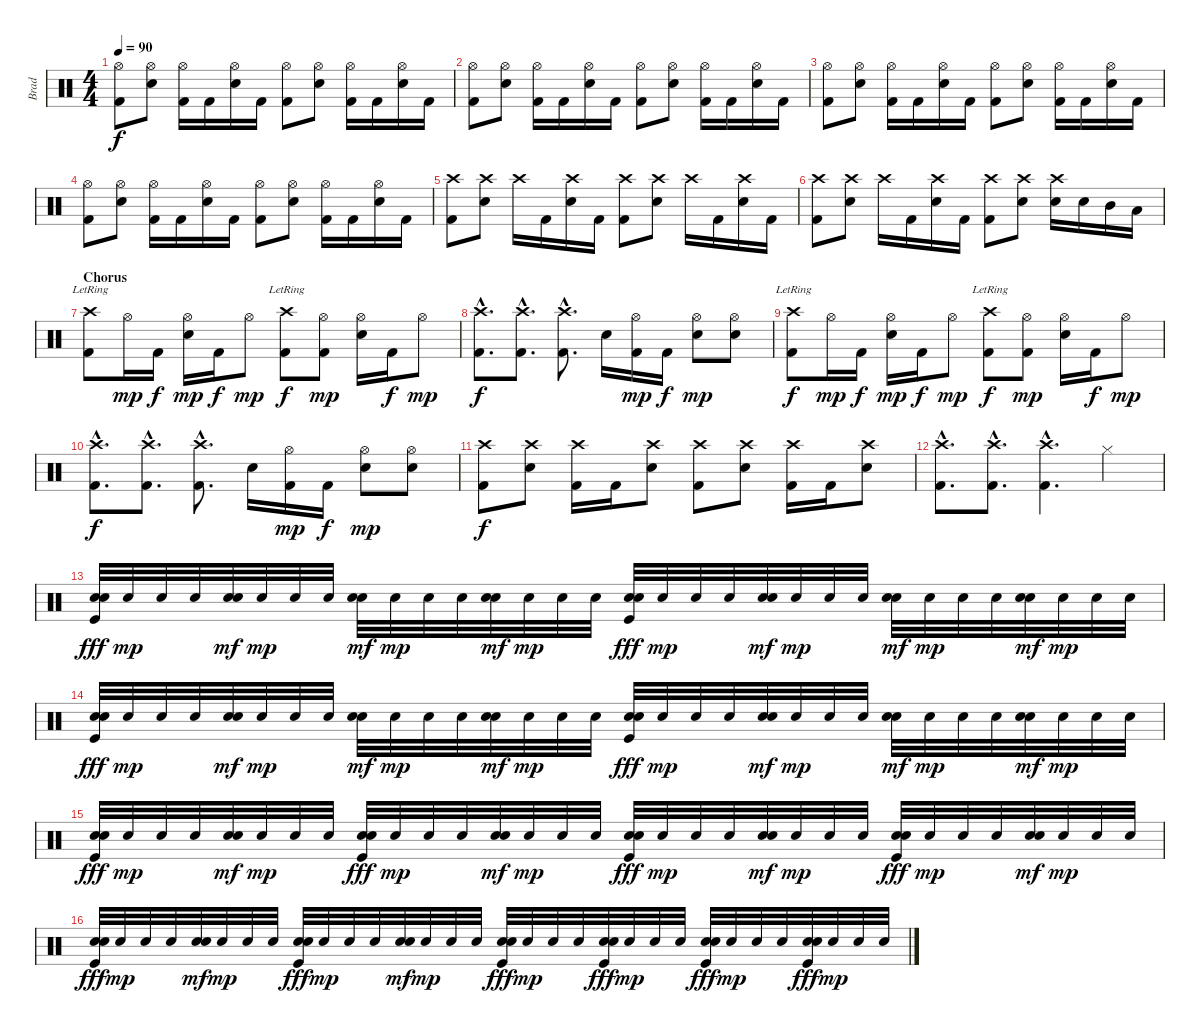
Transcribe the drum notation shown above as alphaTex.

\track ("Brad" "Brad") {instrument percussion}
\staff {score}
\articulation defaults
\ts (4 4)
\tempo 90
\clef neutral
\ks c
("Hi-Hat (open)" "Kick (hit) 2").8{dy f} ("Hi-Hat (open)" "Electric Snare (hit)").8 ("Hi-Hat (open)" "Kick (hit) 2").16 "Kick (hit) 2".16 ("Hi-Hat (open)" "Electric Snare (hit)").16 "Kick (hit) 2".16 ("Hi-Hat (open)" "Kick (hit) 2").8 ("Hi-Hat (open)" "Electric Snare (hit)").8 ("Hi-Hat (open)" "Kick (hit) 2").16 "Kick (hit) 2".16 ("Hi-Hat (open)" "Electric Snare (hit)").16 "Kick (hit) 2".16 |
("Hi-Hat (open)" "Kick (hit) 2").8 ("Hi-Hat (open)" "Electric Snare (hit)").8 ("Hi-Hat (open)" "Kick (hit) 2").16 "Kick (hit) 2".16 ("Hi-Hat (open)" "Electric Snare (hit)").16 "Kick (hit) 2".16 ("Hi-Hat (open)" "Kick (hit) 2").8 ("Hi-Hat (open)" "Electric Snare (hit)").8 ("Hi-Hat (open)" "Kick (hit) 2").16 "Kick (hit) 2".16 ("Hi-Hat (open)" "Electric Snare (hit)").16 "Kick (hit) 2".16 |
("Hi-Hat (open)" "Kick (hit) 2").8 ("Hi-Hat (open)" "Electric Snare (hit)").8 ("Hi-Hat (open)" "Kick (hit) 2").16 "Kick (hit) 2".16 ("Hi-Hat (open)" "Electric Snare (hit)").16 "Kick (hit) 2".16 ("Hi-Hat (open)" "Kick (hit) 2").8 ("Hi-Hat (open)" "Electric Snare (hit)").8 ("Hi-Hat (open)" "Kick (hit) 2").16 "Kick (hit) 2".16 ("Hi-Hat (open)" "Electric Snare (hit)").16 "Kick (hit) 2".16 |
("Hi-Hat (open)" "Kick (hit) 2").8 ("Hi-Hat (open)" "Electric Snare (hit)").8 ("Hi-Hat (open)" "Kick (hit) 2").16 "Kick (hit) 2".16 ("Hi-Hat (open)" "Electric Snare (hit)").16 "Kick (hit) 2".16 ("Hi-Hat (open)" "Kick (hit) 2").8 ("Hi-Hat (open)" "Electric Snare (hit)").8 ("Hi-Hat (open)" "Kick (hit) 2").16 "Kick (hit) 2".16 ("Hi-Hat (open)" "Electric Snare (hit)").16 "Kick (hit) 2".16 |
("Crash high (hit)" "Kick (hit) 2").8 ("Crash high (hit)" "Electric Snare (hit)").8 "Crash high (hit)".16 "Kick (hit) 2".16 ("Crash high (hit)" "Electric Snare (hit)").16 "Kick (hit) 2".16 ("Crash high (hit)" "Kick (hit) 2").8 ("Crash high (hit)" "Electric Snare (hit)").8 "Crash high (hit)".16 "Kick (hit) 2".16 ("Crash high (hit)" "Electric Snare (hit)").16 "Kick (hit) 2".16 |
("Crash high (hit)" "Kick (hit) 2").8 ("Crash high (hit)" "Electric Snare (hit)").8 "Crash high (hit)".16 "Kick (hit) 2".16 ("Crash high (hit)" "Electric Snare (hit)").16 "Kick (hit) 2".16 ("Crash high (hit)" "Kick (hit) 2").8 ("Crash high (hit)" "Electric Snare (hit)").8 ("Crash high (hit)" "Electric Snare (hit)").16 "Electric Snare (hit)".16 "Mid Tom (hit)".16 "Low Tom (hit)".16 |
\section ("" "Chorus")
("Crash high (hit)"{lr} "Kick (hit) 2").8 "Hi-Hat (open)".16{dy mp} "Kick (hit) 2".16{dy f} ("Hi-Hat (open)" "Electric Snare (hit)").16{dy mp} "Kick (hit) 2".16{dy f} "Hi-Hat (open)".8{dy mp} ("Crash high (hit)"{lr} "Kick (hit) 2").8{dy f} ("Hi-Hat (open)" "Kick (hit) 2").8{dy mp} ("Hi-Hat (open)" "Electric Snare (hit)").16 "Kick (hit) 2".16{dy f} "Hi-Hat (open)".8{dy mp} |
("Crash high (hit)"{hac} "Kick (hit) 2"{hac}).8{d dy f} ("Crash high (hit)"{hac} "Kick (hit) 2"{hac}).8{d} ("Crash high (hit)"{hac} "Kick (hit) 2"{hac}).8{d} "Electric Snare (hit)".16 ("Hi-Hat (open)" "Kick (hit) 2").16{dy mp} "Kick (hit) 2".16{dy f} ("Hi-Hat (open)" "Electric Snare (hit)").8{dy mp} ("Hi-Hat (open)" "Electric Snare (hit)").8 |
("Crash high (hit)"{lr} "Kick (hit) 2").8{dy f} "Hi-Hat (open)".16{dy mp} "Kick (hit) 2".16{dy f} ("Hi-Hat (open)" "Electric Snare (hit)").16{dy mp} "Kick (hit) 2".16{dy f} "Hi-Hat (open)".8{dy mp} ("Crash high (hit)"{lr} "Kick (hit) 2").8{dy f} ("Hi-Hat (open)" "Kick (hit) 2").8{dy mp} ("Hi-Hat (open)" "Electric Snare (hit)").16 "Kick (hit) 2".16{dy f} "Hi-Hat (open)".8{dy mp} |
("Crash high (hit)"{hac} "Kick (hit) 2"{hac}).8{d dy f} ("Crash high (hit)"{hac} "Kick (hit) 2"{hac}).8{d} ("Crash high (hit)"{hac} "Kick (hit) 2"{hac}).8{d} "Electric Snare (hit)".16 ("Hi-Hat (open)" "Kick (hit) 2").16{dy mp} "Kick (hit) 2".16{dy f} ("Hi-Hat (open)" "Electric Snare (hit)").8{dy mp} ("Hi-Hat (open)" "Electric Snare (hit)").8 |
("Crash high (hit)" "Kick (hit) 2").8{dy f} ("Crash high (hit)" "Electric Snare (hit)").8 ("Crash high (hit)" "Kick (hit) 2").16 "Kick (hit) 2".16 ("Crash high (hit)" "Electric Snare (hit)").8 ("Crash high (hit)" "Kick (hit) 2").8 ("Crash high (hit)" "Electric Snare (hit)").8 ("Crash high (hit)" "Kick (hit) 2").16 "Kick (hit) 2".16 ("Crash high (hit)" "Electric Snare (hit)").8 |
("Crash high (hit)"{hac} "Kick (hit) 2"{hac}).8{d} ("Crash high (hit)"{hac} "Kick (hit) 2"{hac}).8{d} ("Crash high (hit)"{hac} "Kick (hit) 2"{hac}).4{d} "Hi-Hat (closed)".4 |
("Electric Snare (hit)" "Electric Snare (hit)" "Kick (hit)").32{dy fff} "Electric Snare (hit)".32{dy mp} "Electric Snare (hit)".32 "Electric Snare (hit)".32 ("Electric Snare (hit)" "Electric Snare (hit)").32{dy mf} "Electric Snare (hit)".32{dy mp} "Electric Snare (hit)".32 "Electric Snare (hit)".32 ("Electric Snare (hit)" "Electric Snare (hit)").32{dy mf} "Electric Snare (hit)".32{dy mp} "Electric Snare (hit)".32 "Electric Snare (hit)".32 ("Electric Snare (hit)" "Electric Snare (hit)").32{dy mf} "Electric Snare (hit)".32{dy mp} "Electric Snare (hit)".32 "Electric Snare (hit)".32 ("Electric Snare (hit)" "Electric Snare (hit)" "Kick (hit)").32{dy fff} "Electric Snare (hit)".32{dy mp} "Electric Snare (hit)".32 "Electric Snare (hit)".32 ("Electric Snare (hit)" "Electric Snare (hit)").32{dy mf} "Electric Snare (hit)".32{dy mp} "Electric Snare (hit)".32 "Electric Snare (hit)".32 ("Electric Snare (hit)" "Electric Snare (hit)").32{dy mf} "Electric Snare (hit)".32{dy mp} "Electric Snare (hit)".32 "Electric Snare (hit)".32 ("Electric Snare (hit)" "Electric Snare (hit)").32{dy mf} "Electric Snare (hit)".32{dy mp} "Electric Snare (hit)".32 "Electric Snare (hit)".32 |
("Electric Snare (hit)" "Electric Snare (hit)" "Kick (hit)").32{dy fff} "Electric Snare (hit)".32{dy mp} "Electric Snare (hit)".32 "Electric Snare (hit)".32 ("Electric Snare (hit)" "Electric Snare (hit)").32{dy mf} "Electric Snare (hit)".32{dy mp} "Electric Snare (hit)".32 "Electric Snare (hit)".32 ("Electric Snare (hit)" "Electric Snare (hit)").32{dy mf} "Electric Snare (hit)".32{dy mp} "Electric Snare (hit)".32 "Electric Snare (hit)".32 ("Electric Snare (hit)" "Electric Snare (hit)").32{dy mf} "Electric Snare (hit)".32{dy mp} "Electric Snare (hit)".32 "Electric Snare (hit)".32 ("Electric Snare (hit)" "Electric Snare (hit)" "Kick (hit)").32{dy fff} "Electric Snare (hit)".32{dy mp} "Electric Snare (hit)".32 "Electric Snare (hit)".32 ("Electric Snare (hit)" "Electric Snare (hit)").32{dy mf} "Electric Snare (hit)".32{dy mp} "Electric Snare (hit)".32 "Electric Snare (hit)".32 ("Electric Snare (hit)" "Electric Snare (hit)").32{dy mf} "Electric Snare (hit)".32{dy mp} "Electric Snare (hit)".32 "Electric Snare (hit)".32 ("Electric Snare (hit)" "Electric Snare (hit)").32{dy mf} "Electric Snare (hit)".32{dy mp} "Electric Snare (hit)".32 "Electric Snare (hit)".32 |
("Electric Snare (hit)" "Electric Snare (hit)" "Kick (hit)").32{dy fff} "Electric Snare (hit)".32{dy mp} "Electric Snare (hit)".32 "Electric Snare (hit)".32 ("Electric Snare (hit)" "Electric Snare (hit)").32{dy mf} "Electric Snare (hit)".32{dy mp} "Electric Snare (hit)".32 "Electric Snare (hit)".32 ("Electric Snare (hit)" "Electric Snare (hit)" "Kick (hit)").32{dy fff} "Electric Snare (hit)".32{dy mp} "Electric Snare (hit)".32 "Electric Snare (hit)".32 ("Electric Snare (hit)" "Electric Snare (hit)").32{dy mf} "Electric Snare (hit)".32{dy mp} "Electric Snare (hit)".32 "Electric Snare (hit)".32 ("Electric Snare (hit)" "Electric Snare (hit)" "Kick (hit)").32{dy fff} "Electric Snare (hit)".32{dy mp} "Electric Snare (hit)".32 "Electric Snare (hit)".32 ("Electric Snare (hit)" "Electric Snare (hit)").32{dy mf} "Electric Snare (hit)".32{dy mp} "Electric Snare (hit)".32 "Electric Snare (hit)".32 ("Electric Snare (hit)" "Electric Snare (hit)" "Kick (hit)").32{dy fff} "Electric Snare (hit)".32{dy mp} "Electric Snare (hit)".32 "Electric Snare (hit)".32 ("Electric Snare (hit)" "Electric Snare (hit)").32{dy mf} "Electric Snare (hit)".32{dy mp} "Electric Snare (hit)".32 "Electric Snare (hit)".32 |
("Electric Snare (hit)" "Electric Snare (hit)" "Kick (hit)").32{dy fff} "Electric Snare (hit)".32{dy mp} "Electric Snare (hit)".32 "Electric Snare (hit)".32 ("Electric Snare (hit)" "Electric Snare (hit)").32{dy mf} "Electric Snare (hit)".32{dy mp} "Electric Snare (hit)".32 "Electric Snare (hit)".32 ("Electric Snare (hit)" "Electric Snare (hit)" "Kick (hit)").32{dy fff} "Electric Snare (hit)".32{dy mp} "Electric Snare (hit)".32 "Electric Snare (hit)".32 ("Electric Snare (hit)" "Electric Snare (hit)").32{dy mf} "Electric Snare (hit)".32{dy mp} "Electric Snare (hit)".32 "Electric Snare (hit)".32 ("Electric Snare (hit)" "Electric Snare (hit)" "Kick (hit)").32{dy fff} "Electric Snare (hit)".32{dy mp} "Electric Snare (hit)".32 "Electric Snare (hit)".32 ("Electric Snare (hit)" "Electric Snare (hit)" "Kick (hit)").32{dy fff} "Electric Snare (hit)".32{dy mp} "Electric Snare (hit)".32 "Electric Snare (hit)".32 ("Electric Snare (hit)" "Electric Snare (hit)" "Kick (hit)").32{dy fff} "Electric Snare (hit)".32{dy mp} "Electric Snare (hit)".32 "Electric Snare (hit)".32 ("Electric Snare (hit)" "Electric Snare (hit)" "Kick (hit)").32{dy fff} "Electric Snare (hit)".32{dy mp} "Electric Snare (hit)".32 "Electric Snare (hit)".32
